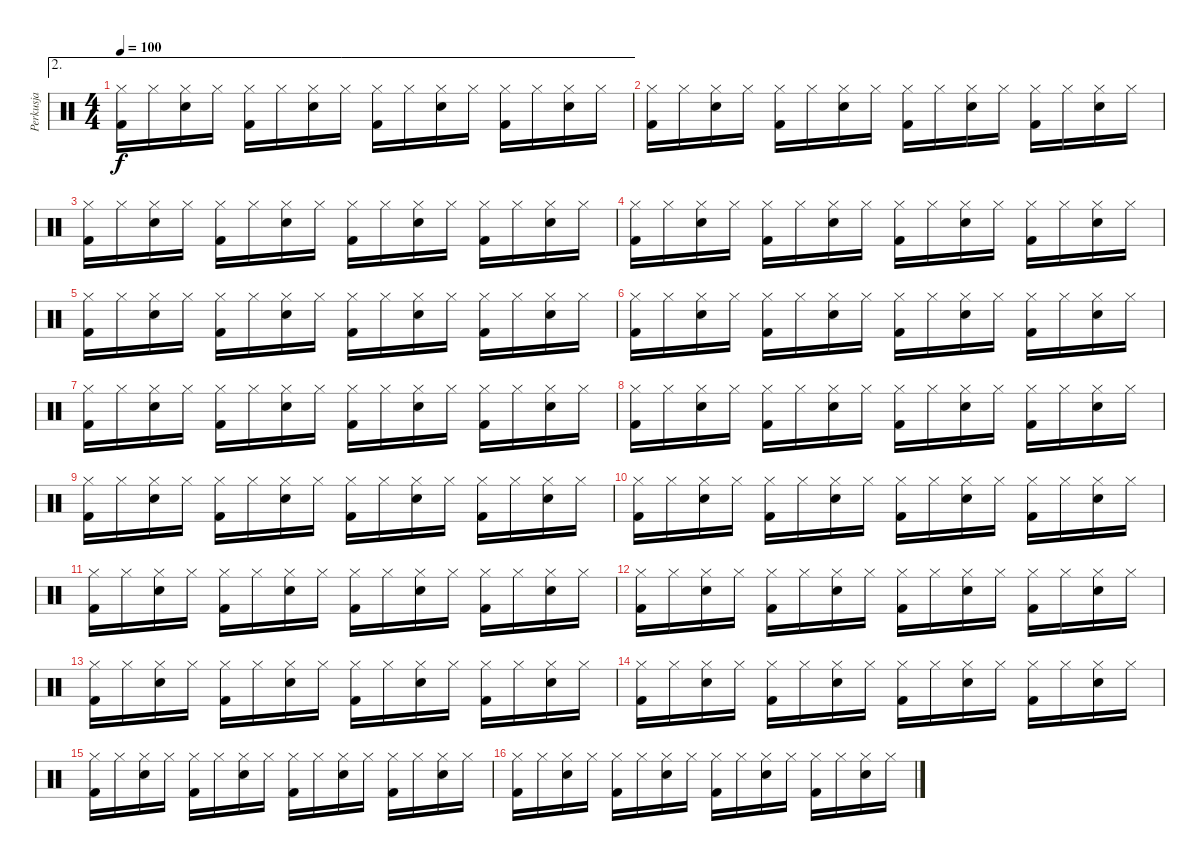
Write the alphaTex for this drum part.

\track ("Perkusja" "Perkusja") {instrument percussion}
\staff {score}
\articulation defaults
\ae 2
\ts (4 4)
\tempo 100
\clef neutral
\ks c
("Hi-Hat (closed)" "Kick (hit) 2").16{dy f} "Hi-Hat (closed)".16 ("Snare (hit) 2" "Hi-Hat (closed)").16 "Hi-Hat (closed)".16 ("Hi-Hat (closed)" "Kick (hit) 2").16 "Hi-Hat (closed)".16 ("Snare (hit) 2" "Hi-Hat (closed)").16 "Hi-Hat (closed)".16 ("Hi-Hat (closed)" "Kick (hit) 2").16 "Hi-Hat (closed)".16 ("Snare (hit) 2" "Hi-Hat (closed)").16 "Hi-Hat (closed)".16 ("Hi-Hat (closed)" "Kick (hit) 2").16 "Hi-Hat (closed)".16 ("Snare (hit) 2" "Hi-Hat (closed)").16 "Hi-Hat (closed)".16 |
("Hi-Hat (closed)" "Kick (hit) 2").16 "Hi-Hat (closed)".16 ("Snare (hit) 2" "Hi-Hat (closed)").16 "Hi-Hat (closed)".16 ("Hi-Hat (closed)" "Kick (hit) 2").16 "Hi-Hat (closed)".16 ("Snare (hit) 2" "Hi-Hat (closed)").16 "Hi-Hat (closed)".16 ("Hi-Hat (closed)" "Kick (hit) 2").16 "Hi-Hat (closed)".16 ("Snare (hit) 2" "Hi-Hat (closed)").16 "Hi-Hat (closed)".16 ("Hi-Hat (closed)" "Kick (hit) 2").16 "Hi-Hat (closed)".16 ("Snare (hit) 2" "Hi-Hat (closed)").16 "Hi-Hat (closed)".16 |
("Hi-Hat (closed)" "Kick (hit) 2").16 "Hi-Hat (closed)".16 ("Snare (hit) 2" "Hi-Hat (closed)").16 "Hi-Hat (closed)".16 ("Hi-Hat (closed)" "Kick (hit) 2").16 "Hi-Hat (closed)".16 ("Snare (hit) 2" "Hi-Hat (closed)").16 "Hi-Hat (closed)".16 ("Hi-Hat (closed)" "Kick (hit) 2").16 "Hi-Hat (closed)".16 ("Snare (hit) 2" "Hi-Hat (closed)").16 "Hi-Hat (closed)".16 ("Hi-Hat (closed)" "Kick (hit) 2").16 "Hi-Hat (closed)".16 ("Snare (hit) 2" "Hi-Hat (closed)").16 "Hi-Hat (closed)".16 |
("Hi-Hat (closed)" "Kick (hit) 2").16 "Hi-Hat (closed)".16 ("Snare (hit) 2" "Hi-Hat (closed)").16 "Hi-Hat (closed)".16 ("Hi-Hat (closed)" "Kick (hit) 2").16 "Hi-Hat (closed)".16 ("Snare (hit) 2" "Hi-Hat (closed)").16 "Hi-Hat (closed)".16 ("Hi-Hat (closed)" "Kick (hit) 2").16 "Hi-Hat (closed)".16 ("Snare (hit) 2" "Hi-Hat (closed)").16 "Hi-Hat (closed)".16 ("Hi-Hat (closed)" "Kick (hit) 2").16 "Hi-Hat (closed)".16 ("Snare (hit) 2" "Hi-Hat (closed)").16 "Hi-Hat (closed)".16 |
("Hi-Hat (closed)" "Kick (hit) 2").16 "Hi-Hat (closed)".16 ("Snare (hit) 2" "Hi-Hat (closed)").16 "Hi-Hat (closed)".16 ("Hi-Hat (closed)" "Kick (hit) 2").16 "Hi-Hat (closed)".16 ("Snare (hit) 2" "Hi-Hat (closed)").16 "Hi-Hat (closed)".16 ("Hi-Hat (closed)" "Kick (hit) 2").16 "Hi-Hat (closed)".16 ("Snare (hit) 2" "Hi-Hat (closed)").16 "Hi-Hat (closed)".16 ("Hi-Hat (closed)" "Kick (hit) 2").16 "Hi-Hat (closed)".16 ("Snare (hit) 2" "Hi-Hat (closed)").16 "Hi-Hat (closed)".16 |
("Hi-Hat (closed)" "Kick (hit) 2").16 "Hi-Hat (closed)".16 ("Snare (hit) 2" "Hi-Hat (closed)").16 "Hi-Hat (closed)".16 ("Hi-Hat (closed)" "Kick (hit) 2").16 "Hi-Hat (closed)".16 ("Snare (hit) 2" "Hi-Hat (closed)").16 "Hi-Hat (closed)".16 ("Hi-Hat (closed)" "Kick (hit) 2").16 "Hi-Hat (closed)".16 ("Snare (hit) 2" "Hi-Hat (closed)").16 "Hi-Hat (closed)".16 ("Hi-Hat (closed)" "Kick (hit) 2").16 "Hi-Hat (closed)".16 ("Snare (hit) 2" "Hi-Hat (closed)").16 "Hi-Hat (closed)".16 |
("Hi-Hat (closed)" "Kick (hit) 2").16 "Hi-Hat (closed)".16 ("Snare (hit) 2" "Hi-Hat (closed)").16 "Hi-Hat (closed)".16 ("Hi-Hat (closed)" "Kick (hit) 2").16 "Hi-Hat (closed)".16 ("Snare (hit) 2" "Hi-Hat (closed)").16 "Hi-Hat (closed)".16 ("Hi-Hat (closed)" "Kick (hit) 2").16 "Hi-Hat (closed)".16 ("Snare (hit) 2" "Hi-Hat (closed)").16 "Hi-Hat (closed)".16 ("Hi-Hat (closed)" "Kick (hit) 2").16 "Hi-Hat (closed)".16 ("Snare (hit) 2" "Hi-Hat (closed)").16 "Hi-Hat (closed)".16 |
("Hi-Hat (closed)" "Kick (hit) 2").16 "Hi-Hat (closed)".16 ("Snare (hit) 2" "Hi-Hat (closed)").16 "Hi-Hat (closed)".16 ("Hi-Hat (closed)" "Kick (hit) 2").16 "Hi-Hat (closed)".16 ("Snare (hit) 2" "Hi-Hat (closed)").16 "Hi-Hat (closed)".16 ("Hi-Hat (closed)" "Kick (hit) 2").16 "Hi-Hat (closed)".16 ("Snare (hit) 2" "Hi-Hat (closed)").16 "Hi-Hat (closed)".16 ("Hi-Hat (closed)" "Kick (hit) 2").16 "Hi-Hat (closed)".16 ("Snare (hit) 2" "Hi-Hat (closed)").16 "Hi-Hat (closed)".16 |
("Hi-Hat (closed)" "Kick (hit) 2").16 "Hi-Hat (closed)".16 ("Snare (hit) 2" "Hi-Hat (closed)").16 "Hi-Hat (closed)".16 ("Hi-Hat (closed)" "Kick (hit) 2").16 "Hi-Hat (closed)".16 ("Snare (hit) 2" "Hi-Hat (closed)").16 "Hi-Hat (closed)".16 ("Hi-Hat (closed)" "Kick (hit) 2").16 "Hi-Hat (closed)".16 ("Snare (hit) 2" "Hi-Hat (closed)").16 "Hi-Hat (closed)".16 ("Hi-Hat (closed)" "Kick (hit) 2").16 "Hi-Hat (closed)".16 ("Snare (hit) 2" "Hi-Hat (closed)").16 "Hi-Hat (closed)".16 |
("Hi-Hat (closed)" "Kick (hit) 2").16 "Hi-Hat (closed)".16 ("Snare (hit) 2" "Hi-Hat (closed)").16 "Hi-Hat (closed)".16 ("Hi-Hat (closed)" "Kick (hit) 2").16 "Hi-Hat (closed)".16 ("Snare (hit) 2" "Hi-Hat (closed)").16 "Hi-Hat (closed)".16 ("Hi-Hat (closed)" "Kick (hit) 2").16 "Hi-Hat (closed)".16 ("Snare (hit) 2" "Hi-Hat (closed)").16 "Hi-Hat (closed)".16 ("Hi-Hat (closed)" "Kick (hit) 2").16 "Hi-Hat (closed)".16 ("Snare (hit) 2" "Hi-Hat (closed)").16 "Hi-Hat (closed)".16 |
("Hi-Hat (closed)" "Kick (hit) 2").16 "Hi-Hat (closed)".16 ("Snare (hit) 2" "Hi-Hat (closed)").16 "Hi-Hat (closed)".16 ("Hi-Hat (closed)" "Kick (hit) 2").16 "Hi-Hat (closed)".16 ("Snare (hit) 2" "Hi-Hat (closed)").16 "Hi-Hat (closed)".16 ("Hi-Hat (closed)" "Kick (hit) 2").16 "Hi-Hat (closed)".16 ("Snare (hit) 2" "Hi-Hat (closed)").16 "Hi-Hat (closed)".16 ("Hi-Hat (closed)" "Kick (hit) 2").16 "Hi-Hat (closed)".16 ("Snare (hit) 2" "Hi-Hat (closed)").16 "Hi-Hat (closed)".16 |
("Hi-Hat (closed)" "Kick (hit) 2").16 "Hi-Hat (closed)".16 ("Snare (hit) 2" "Hi-Hat (closed)").16 "Hi-Hat (closed)".16 ("Hi-Hat (closed)" "Kick (hit) 2").16 "Hi-Hat (closed)".16 ("Snare (hit) 2" "Hi-Hat (closed)").16 "Hi-Hat (closed)".16 ("Hi-Hat (closed)" "Kick (hit) 2").16 "Hi-Hat (closed)".16 ("Snare (hit) 2" "Hi-Hat (closed)").16 "Hi-Hat (closed)".16 ("Hi-Hat (closed)" "Kick (hit) 2").16 "Hi-Hat (closed)".16 ("Snare (hit) 2" "Hi-Hat (closed)").16 "Hi-Hat (closed)".16 |
("Hi-Hat (closed)" "Kick (hit) 2").16 "Hi-Hat (closed)".16 ("Snare (hit) 2" "Hi-Hat (closed)").16 "Hi-Hat (closed)".16 ("Hi-Hat (closed)" "Kick (hit) 2").16 "Hi-Hat (closed)".16 ("Snare (hit) 2" "Hi-Hat (closed)").16 "Hi-Hat (closed)".16 ("Hi-Hat (closed)" "Kick (hit) 2").16 "Hi-Hat (closed)".16 ("Snare (hit) 2" "Hi-Hat (closed)").16 "Hi-Hat (closed)".16 ("Hi-Hat (closed)" "Kick (hit) 2").16 "Hi-Hat (closed)".16 ("Snare (hit) 2" "Hi-Hat (closed)").16 "Hi-Hat (closed)".16 |
("Hi-Hat (closed)" "Kick (hit) 2").16 "Hi-Hat (closed)".16 ("Snare (hit) 2" "Hi-Hat (closed)").16 "Hi-Hat (closed)".16 ("Hi-Hat (closed)" "Kick (hit) 2").16 "Hi-Hat (closed)".16 ("Snare (hit) 2" "Hi-Hat (closed)").16 "Hi-Hat (closed)".16 ("Hi-Hat (closed)" "Kick (hit) 2").16 "Hi-Hat (closed)".16 ("Snare (hit) 2" "Hi-Hat (closed)").16 "Hi-Hat (closed)".16 ("Hi-Hat (closed)" "Kick (hit) 2").16 "Hi-Hat (closed)".16 ("Snare (hit) 2" "Hi-Hat (closed)").16 "Hi-Hat (closed)".16 |
("Hi-Hat (closed)" "Kick (hit) 2").16 "Hi-Hat (closed)".16 ("Snare (hit) 2" "Hi-Hat (closed)").16 "Hi-Hat (closed)".16 ("Hi-Hat (closed)" "Kick (hit) 2").16 "Hi-Hat (closed)".16 ("Snare (hit) 2" "Hi-Hat (closed)").16 "Hi-Hat (closed)".16 ("Hi-Hat (closed)" "Kick (hit) 2").16 "Hi-Hat (closed)".16 ("Snare (hit) 2" "Hi-Hat (closed)").16 "Hi-Hat (closed)".16 ("Hi-Hat (closed)" "Kick (hit) 2").16 "Hi-Hat (closed)".16 ("Snare (hit) 2" "Hi-Hat (closed)").16 "Hi-Hat (closed)".16 |
("Hi-Hat (closed)" "Kick (hit) 2").16 "Hi-Hat (closed)".16 ("Snare (hit) 2" "Hi-Hat (closed)").16 "Hi-Hat (closed)".16 ("Hi-Hat (closed)" "Kick (hit) 2").16 "Hi-Hat (closed)".16 ("Snare (hit) 2" "Hi-Hat (closed)").16 "Hi-Hat (closed)".16 ("Hi-Hat (closed)" "Kick (hit) 2").16 "Hi-Hat (closed)".16 ("Snare (hit) 2" "Hi-Hat (closed)").16 "Hi-Hat (closed)".16 ("Hi-Hat (closed)" "Kick (hit) 2").16 "Hi-Hat (closed)".16 ("Snare (hit) 2" "Hi-Hat (closed)").16 "Hi-Hat (closed)".16
